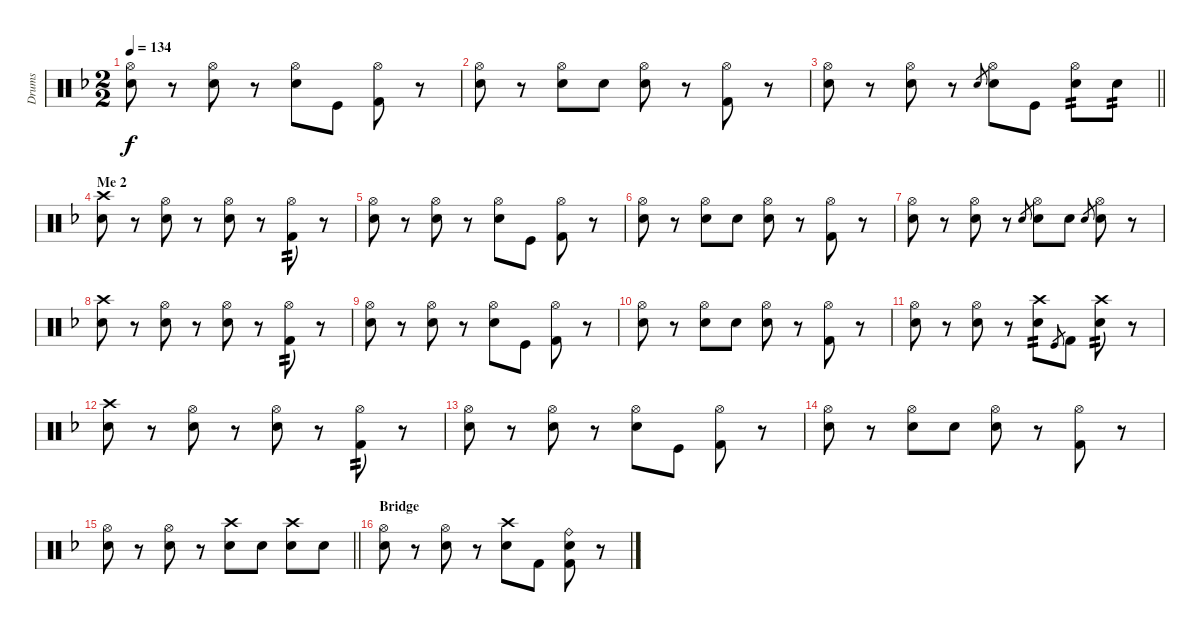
\track ("Drums" "Drums") {instrument percussion}
\staff {score}
\articulation defaults
\ts (2 2)
\tempo 134
\clef neutral
\ks f
("Snare (hit) 2" "Hi-Hat (open)").8{dy f} r.8 ("Snare (hit) 2" "Hi-Hat (open)").8 r.8 ("Electric Snare (hit)" "Hi-Hat (open)").8 "Kick (hit)".8 ("Kick (hit) 2" "Hi-Hat (open)").8 r.8 |
("Snare (hit) 2" "Hi-Hat (open)").8 r.8 ("Snare (hit) 2" "Hi-Hat (open)").8 "Snare (hit) 2".8 ("Electric Snare (hit)" "Hi-Hat (open)").8 r.8 ("Kick (hit) 2" "Hi-Hat (open)").8 r.8 |
\barLineRight lightlight
("Snare (hit) 2" "Hi-Hat (open)").8 r.8 ("Snare (hit) 2" "Hi-Hat (open)").8 r.8 "Electric Snare (hit)".8{gr} ("Electric Snare (hit)" "Hi-Hat (open)").8 "Kick (hit)".8 ("Electric Snare (hit)" "Hi-Hat (open)").8{tp 2} "Snare (hit) 2".8{tp 2} |
\section ("" "Me 2")
("Snare (hit) 2" "Crash high (hit)").8 r.8 ("Snare (hit) 2" "Hi-Hat (open)").8 r.8 ("Electric Snare (hit)" "Hi-Hat (open)").8 r.8 ("Kick (hit) 2" "Hi-Hat (open)").8{tp 2} r.8 |
("Snare (hit) 2" "Hi-Hat (open)").8 r.8 ("Snare (hit) 2" "Hi-Hat (open)").8 r.8 ("Electric Snare (hit)" "Hi-Hat (open)").8 "Kick (hit)".8 ("Kick (hit) 2" "Hi-Hat (open)").8 r.8 |
("Snare (hit) 2" "Hi-Hat (open)").8 r.8 ("Snare (hit) 2" "Hi-Hat (open)").8 "Snare (hit) 2".8 ("Electric Snare (hit)" "Hi-Hat (open)").8 r.8 ("Kick (hit) 2" "Hi-Hat (open)").8 r.8 |
("Snare (hit) 2" "Hi-Hat (open)").8 r.8 ("Snare (hit) 2" "Hi-Hat (open)").8 r.8 "Electric Snare (hit)".8{gr} ("Electric Snare (hit)" "Hi-Hat (open)").8 "Snare (hit) 2".8 "Electric Snare (hit)".8{gr} ("Electric Snare (hit)" "Hi-Hat (open)").8 r.8 |
("Snare (hit) 2" "Crash high (hit)").8 r.8 ("Snare (hit) 2" "Hi-Hat (open)").8 r.8 ("Electric Snare (hit)" "Hi-Hat (open)").8 r.8 ("Kick (hit) 2" "Hi-Hat (open)").8{tp 2} r.8 |
("Snare (hit) 2" "Hi-Hat (open)").8 r.8 ("Snare (hit) 2" "Hi-Hat (open)").8 r.8 ("Electric Snare (hit)" "Hi-Hat (open)").8 "Kick (hit)".8 ("Kick (hit) 2" "Hi-Hat (open)").8 r.8 |
("Snare (hit) 2" "Hi-Hat (open)").8 r.8 ("Snare (hit) 2" "Hi-Hat (open)").8 "Snare (hit) 2".8 ("Electric Snare (hit)" "Hi-Hat (open)").8 r.8 ("Kick (hit) 2" "Hi-Hat (open)").8 r.8 |
("Snare (hit) 2" "Hi-Hat (open)").8 r.8 ("Snare (hit) 2" "Hi-Hat (open)").8 r.8 ("Electric Snare (hit)" "Crash high (hit)").8{tp 2} "Kick (hit)".8{gr} "Kick (hit) 2".8 ("Snare (hit) 2" "Crash high (hit)").8{tp 2} r.8 |
("Snare (hit) 2" "Crash high (hit)").8 r.8 ("Snare (hit) 2" "Hi-Hat (open)").8 r.8 ("Electric Snare (hit)" "Hi-Hat (open)").8 r.8 ("Kick (hit) 2" "Hi-Hat (open)").8{tp 2} r.8 |
("Snare (hit) 2" "Hi-Hat (open)").8 r.8 ("Snare (hit) 2" "Hi-Hat (open)").8 r.8 ("Electric Snare (hit)" "Hi-Hat (open)").8 "Kick (hit)".8 ("Kick (hit) 2" "Hi-Hat (open)").8 r.8 |
("Snare (hit) 2" "Hi-Hat (open)").8 r.8 ("Snare (hit) 2" "Hi-Hat (open)").8 "Snare (hit) 2".8 ("Electric Snare (hit)" "Hi-Hat (open)").8 r.8 ("Kick (hit) 2" "Hi-Hat (open)").8 r.8 |
\barLineRight lightlight
("Snare (hit) 2" "Hi-Hat (open)").8 r.8 ("Snare (hit) 2" "Hi-Hat (open)").8 r.8 ("Snare (hit) 2" "Crash high (hit)").8 "Snare (hit) 2".8 ("Electric Snare (hit)" "Crash high (hit)").8 "Electric Snare (hit)".8 |
\section ("" "Bridge")
("Snare (hit) 2" "Hi-Hat (open)").8 r.8 ("Snare (hit) 2" "Hi-Hat (open)").8 r.8 ("Electric Snare (hit)" "Crash high (hit)").8 "Kick (hit) 2".8 ("Electric Snare (hit)" "Kick (hit) 2" "Ride (bell)").8 r.8
